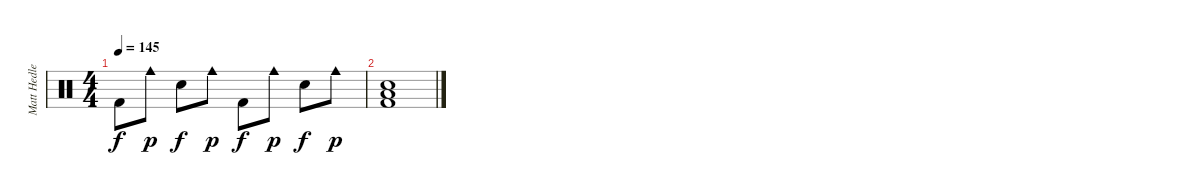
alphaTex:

\track ("Matt Hedlers" "Matt Hedle") {instrument percussion}
\staff {score}
\articulation defaults
\ts (4 4)
\tempo 145
\clef neutral
\ks c "Kick (hit) 2".8{dy f} "Cowbell medium (hit)".8{dy p} "Snare (hit) 2".8{dy f} "Cowbell medium (hit)".8{dy p} "Kick (hit) 2".8{dy f} "Cowbell medium (hit)".8{dy p} "Snare (hit) 2".8{dy f} "Cowbell medium (hit)".8{dy p}
|
("Low Tom (hit)" "Snare (hit) 2" "Kick (hit) 2").1
